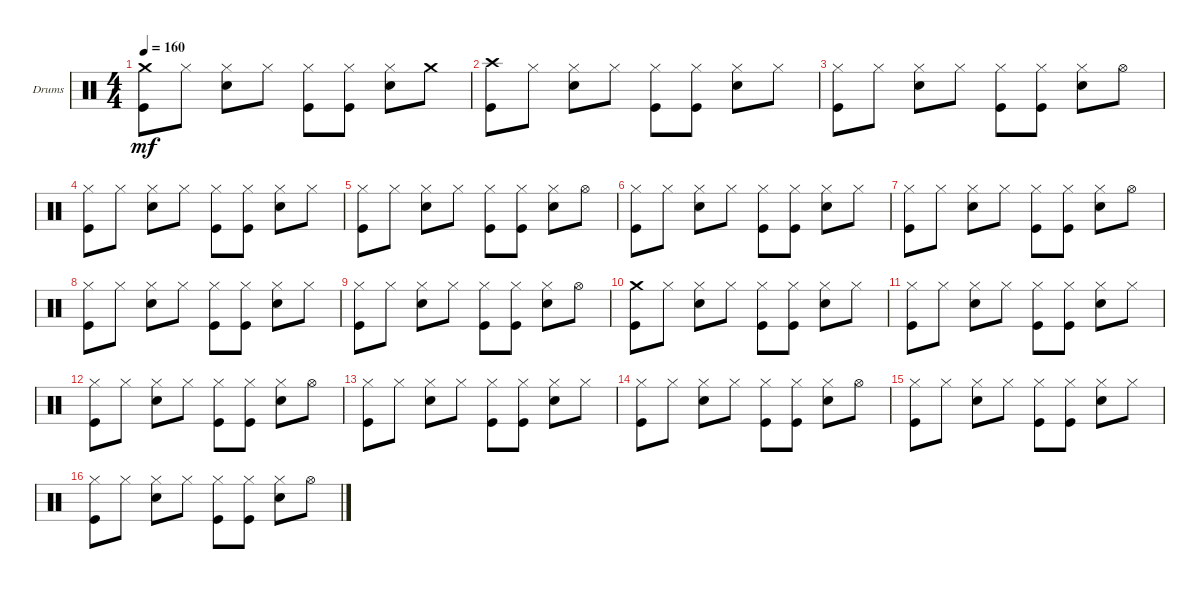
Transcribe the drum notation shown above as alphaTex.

\defaultSystemsLayout 4
\bracketExtendMode groupsimilarinstruments
\firstSystemTrackNameOrientation horizontal
\otherSystemsTrackNameOrientation horizontal
\track ("Drumkit" "Drums") {instrument percussion}
\staff {score}
\articulation defaults
\ts (4 4)
\tempo 160
\clef neutral
\ks c
("Kick (hit)" "Crash medium (hit)").8{dy mf} "Hi-Hat (closed)".8 ("Snare (hit) 2" "Hi-Hat (closed)").8 "Hi-Hat (closed)".8 ("Hi-Hat (closed)" "Kick (hit)").8 ("Kick (hit)" "Hi-Hat (closed)").8 ("Snare (hit) 2" "Hi-Hat (closed)").8 "Crash medium (hit)".8 |
("Kick (hit)" "Crash high (hit)").8 "Hi-Hat (closed)".8 ("Snare (hit) 2" "Hi-Hat (closed)").8 "Hi-Hat (closed)".8 ("Hi-Hat (closed)" "Kick (hit)").8 ("Kick (hit)" "Hi-Hat (closed)").8 ("Snare (hit) 2" "Hi-Hat (closed)").8 "Hi-Hat (closed)".8 |
("Kick (hit)" "Hi-Hat (closed)").8 "Hi-Hat (closed)".8 ("Snare (hit) 2" "Hi-Hat (closed)").8 "Hi-Hat (closed)".8 ("Hi-Hat (closed)" "Kick (hit)").8 ("Kick (hit)" "Hi-Hat (closed)").8 ("Snare (hit) 2" "Hi-Hat (closed)").8 "Hi-Hat (open)".8 |
("Kick (hit)" "Hi-Hat (closed)").8 "Hi-Hat (closed)".8 ("Snare (hit) 2" "Hi-Hat (closed)").8 "Hi-Hat (closed)".8 ("Hi-Hat (closed)" "Kick (hit)").8 ("Kick (hit)" "Hi-Hat (closed)").8 ("Snare (hit) 2" "Hi-Hat (closed)").8 "Hi-Hat (closed)".8 |
("Kick (hit)" "Hi-Hat (closed)").8 "Hi-Hat (closed)".8 ("Snare (hit) 2" "Hi-Hat (closed)").8 "Hi-Hat (closed)".8 ("Hi-Hat (closed)" "Kick (hit)").8 ("Kick (hit)" "Hi-Hat (closed)").8 ("Snare (hit) 2" "Hi-Hat (closed)").8 "Hi-Hat (open)".8 |
("Kick (hit)" "Hi-Hat (closed)").8 "Hi-Hat (closed)".8 ("Snare (hit) 2" "Hi-Hat (closed)").8 "Hi-Hat (closed)".8 ("Hi-Hat (closed)" "Kick (hit)").8 ("Kick (hit)" "Hi-Hat (closed)").8 ("Snare (hit) 2" "Hi-Hat (closed)").8 "Hi-Hat (closed)".8 |
("Kick (hit)" "Hi-Hat (closed)").8 "Hi-Hat (closed)".8 ("Snare (hit) 2" "Hi-Hat (closed)").8 "Hi-Hat (closed)".8 ("Hi-Hat (closed)" "Kick (hit)").8 ("Kick (hit)" "Hi-Hat (closed)").8 ("Snare (hit) 2" "Hi-Hat (closed)").8 "Hi-Hat (open)".8 |
("Kick (hit)" "Hi-Hat (closed)").8 "Hi-Hat (closed)".8 ("Snare (hit) 2" "Hi-Hat (closed)").8 "Hi-Hat (closed)".8 ("Hi-Hat (closed)" "Kick (hit)").8 ("Kick (hit)" "Hi-Hat (closed)").8 ("Snare (hit) 2" "Hi-Hat (closed)").8 "Hi-Hat (closed)".8 |
("Kick (hit)" "Hi-Hat (closed)").8 "Hi-Hat (closed)".8 ("Snare (hit) 2" "Hi-Hat (closed)").8 "Hi-Hat (closed)".8 ("Hi-Hat (closed)" "Kick (hit)").8 ("Kick (hit)" "Hi-Hat (closed)").8 ("Snare (hit) 2" "Hi-Hat (closed)").8 "Hi-Hat (open)".8 |
("Kick (hit)" "Crash medium (hit)").8 "Hi-Hat (closed)".8 ("Snare (hit) 2" "Hi-Hat (closed)").8 "Hi-Hat (closed)".8 ("Hi-Hat (closed)" "Kick (hit)").8 ("Kick (hit)" "Hi-Hat (closed)").8 ("Snare (hit) 2" "Hi-Hat (closed)").8 "Hi-Hat (closed)".8 |
("Kick (hit)" "Hi-Hat (closed)").8 "Hi-Hat (closed)".8 ("Snare (hit) 2" "Hi-Hat (closed)").8 "Hi-Hat (closed)".8 ("Hi-Hat (closed)" "Kick (hit)").8 ("Kick (hit)" "Hi-Hat (closed)").8 ("Snare (hit) 2" "Hi-Hat (closed)").8 "Hi-Hat (closed)".8 |
("Kick (hit)" "Hi-Hat (closed)").8 "Hi-Hat (closed)".8 ("Snare (hit) 2" "Hi-Hat (closed)").8 "Hi-Hat (closed)".8 ("Hi-Hat (closed)" "Kick (hit)").8 ("Kick (hit)" "Hi-Hat (closed)").8 ("Snare (hit) 2" "Hi-Hat (closed)").8 "Hi-Hat (open)".8 |
("Kick (hit)" "Hi-Hat (closed)").8 "Hi-Hat (closed)".8 ("Snare (hit) 2" "Hi-Hat (closed)").8 "Hi-Hat (closed)".8 ("Hi-Hat (closed)" "Kick (hit)").8 ("Kick (hit)" "Hi-Hat (closed)").8 ("Snare (hit) 2" "Hi-Hat (closed)").8 "Hi-Hat (closed)".8 |
("Kick (hit)" "Hi-Hat (closed)").8 "Hi-Hat (closed)".8 ("Snare (hit) 2" "Hi-Hat (closed)").8 "Hi-Hat (closed)".8 ("Hi-Hat (closed)" "Kick (hit)").8 ("Kick (hit)" "Hi-Hat (closed)").8 ("Snare (hit) 2" "Hi-Hat (closed)").8 "Hi-Hat (open)".8 |
("Kick (hit)" "Hi-Hat (closed)").8 "Hi-Hat (closed)".8 ("Snare (hit) 2" "Hi-Hat (closed)").8 "Hi-Hat (closed)".8 ("Hi-Hat (closed)" "Kick (hit)").8 ("Kick (hit)" "Hi-Hat (closed)").8 ("Snare (hit) 2" "Hi-Hat (closed)").8 "Hi-Hat (closed)".8 |
("Kick (hit)" "Hi-Hat (closed)").8 "Hi-Hat (closed)".8 ("Snare (hit) 2" "Hi-Hat (closed)").8 "Hi-Hat (closed)".8 ("Hi-Hat (closed)" "Kick (hit)").8 ("Kick (hit)" "Hi-Hat (closed)").8 ("Snare (hit) 2" "Hi-Hat (closed)").8 "Hi-Hat (open)".8
